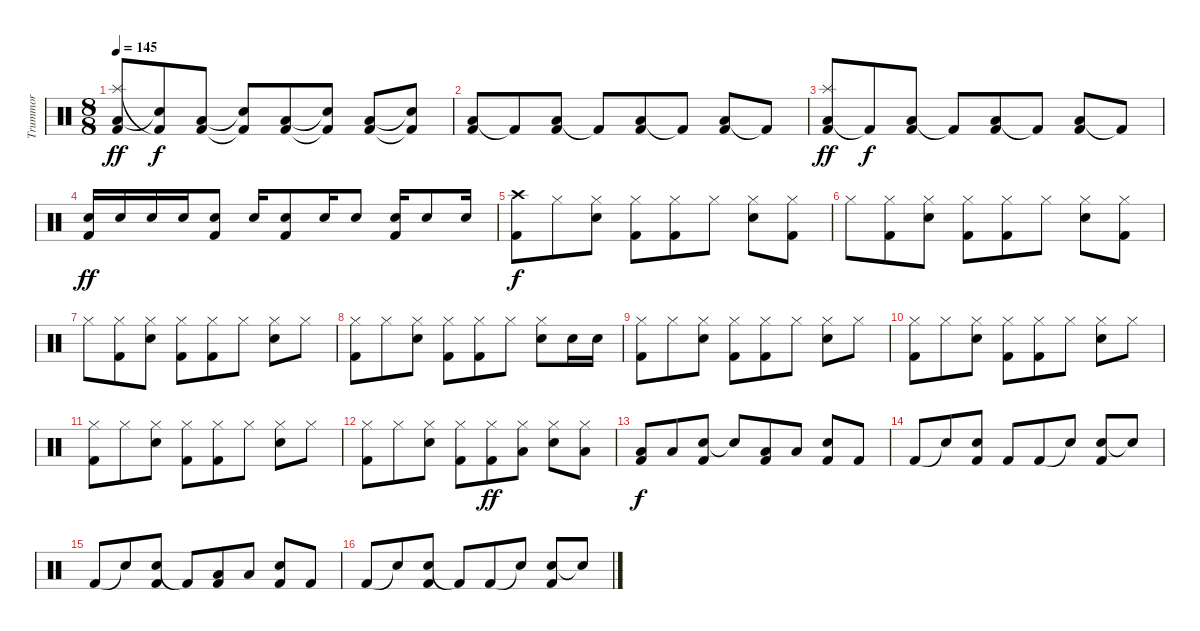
\track ("Trummor" "Trummor") {instrument percussion}
\staff {score}
\articulation defaults
\ts (8 8)
\tempo 145
\clef neutral
\ks c
("Low Floor Tom (hit)" "Splash (hit)" "Kick (hit) 2").8{dy ff} ("Snare (hit)"{t} "Kick (hit) 2"{t}).8{dy f} ("Low Floor Tom (hit)" "Kick (hit) 2").8 ("Snare (hit)"{t} "Kick (hit) 2"{t}).8 ("Low Floor Tom (hit)" "Kick (hit) 2").8 ("Snare (hit)"{t} "Kick (hit) 2"{t}).8 ("Low Floor Tom (hit)" "Kick (hit) 2").8 ("Snare (hit)"{t} "Kick (hit) 2"{t}).8 |
("Low Floor Tom (hit)" "Kick (hit) 2").8 "Kick (hit) 2"{t}.8 ("Low Floor Tom (hit)" "Kick (hit) 2").8 "Kick (hit) 2"{t}.8 ("Low Floor Tom (hit)" "Kick (hit) 2").8 "Kick (hit) 2"{t}.8 ("Low Floor Tom (hit)" "Kick (hit) 2").8 "Kick (hit) 2"{t}.8 |
("Low Floor Tom (hit)" "Splash (hit)" "Kick (hit) 2").8{dy ff} "Kick (hit) 2"{t}.8{dy f} ("Low Floor Tom (hit)" "Kick (hit) 2").8 "Kick (hit) 2"{t}.8 ("Low Floor Tom (hit)" "Kick (hit) 2").8 "Kick (hit) 2"{t}.8 ("Low Floor Tom (hit)" "Kick (hit) 2").8 "Kick (hit) 2"{t}.8 |
("Snare (hit) 2" "Kick (hit) 2").16{dy ff} "Snare (hit) 2".16 "Snare (hit) 2".16 "Snare (hit) 2".16 ("Snare (hit) 2" "Kick (hit) 2").8 "Snare (hit) 2".16 ("Snare (hit) 2" "Kick (hit) 2").8 "Snare (hit) 2".16 "Snare (hit) 2".8 ("Snare (hit) 2" "Kick (hit) 2").16 "Snare (hit) 2".8 "Snare (hit) 2".16 |
("Kick (hit) 2" "Crash high (hit)").8{dy f} "Hi-Hat (closed)".8 ("Snare (hit) 2" "Hi-Hat (closed)").8 ("Kick (hit) 2" "Hi-Hat (closed)").8 ("Kick (hit) 2" "Hi-Hat (closed)").8 "Hi-Hat (closed)".8 ("Snare (hit) 2" "Hi-Hat (closed)").8 ("Kick (hit) 2" "Hi-Hat (closed)").8 |
"Hi-Hat (closed)".8 ("Kick (hit) 2" "Hi-Hat (closed)").8 ("Snare (hit) 2" "Hi-Hat (closed)").8 ("Kick (hit) 2" "Hi-Hat (closed)").8 ("Kick (hit) 2" "Hi-Hat (closed)").8 "Hi-Hat (closed)".8 ("Snare (hit) 2" "Hi-Hat (closed)").8 ("Kick (hit) 2" "Hi-Hat (closed)").8 |
"Hi-Hat (closed)".8 ("Kick (hit) 2" "Hi-Hat (closed)").8 ("Snare (hit) 2" "Hi-Hat (closed)").8 ("Kick (hit) 2" "Hi-Hat (closed)").8 ("Kick (hit) 2" "Hi-Hat (closed)").8 "Hi-Hat (closed)".8 ("Snare (hit) 2" "Hi-Hat (closed)").8 "Hi-Hat (closed)".8 |
("Kick (hit) 2" "Hi-Hat (closed)").8 "Hi-Hat (closed)".8 ("Snare (hit) 2" "Hi-Hat (closed)").8 ("Kick (hit) 2" "Hi-Hat (closed)").8 ("Kick (hit) 2" "Hi-Hat (closed)").8 "Hi-Hat (closed)".8 ("Snare (hit) 2" "Hi-Hat (closed)").8 "Snare (hit) 2".16 "Snare (hit) 2".16 |
("Kick (hit) 2" "Hi-Hat (closed)").8 "Hi-Hat (closed)".8 ("Snare (hit) 2" "Hi-Hat (closed)").8 ("Kick (hit) 2" "Hi-Hat (closed)").8 ("Kick (hit) 2" "Hi-Hat (closed)").8 "Hi-Hat (closed)".8 ("Snare (hit) 2" "Hi-Hat (closed)").8 "Hi-Hat (closed)".8 |
("Kick (hit) 2" "Hi-Hat (closed)").8 "Hi-Hat (closed)".8 ("Snare (hit) 2" "Hi-Hat (closed)").8 ("Kick (hit) 2" "Hi-Hat (closed)").8 ("Kick (hit) 2" "Hi-Hat (closed)").8 "Hi-Hat (closed)".8 ("Snare (hit) 2" "Hi-Hat (closed)").8 "Hi-Hat (closed)".8 |
("Kick (hit) 2" "Hi-Hat (closed)").8 "Hi-Hat (closed)".8 ("Snare (hit) 2" "Hi-Hat (closed)").8 ("Kick (hit) 2" "Hi-Hat (closed)").8 ("Kick (hit) 2" "Hi-Hat (closed)").8 "Hi-Hat (closed)".8 ("Snare (hit) 2" "Hi-Hat (closed)").8 "Hi-Hat (closed)".8 |
("Kick (hit) 2" "Hi-Hat (closed)").8 "Hi-Hat (closed)".8 ("Snare (hit) 2" "Hi-Hat (closed)").8 ("Kick (hit) 2" "Hi-Hat (closed)").8 ("Kick (hit) 2" "Hi-Hat (closed)").8{dy ff} ("Low Floor Tom (hit)" "Hi-Hat (closed)").8 ("Snare (hit) 2" "Hi-Hat (closed)").8 ("Low Floor Tom (hit)" "Hi-Hat (closed)").8 |
("Low Floor Tom (hit)" "Kick (hit) 2").8{dy f} "Low Floor Tom (hit)".8 ("Snare (hit) 2" "Kick (hit) 2").8 "Snare (hit)"{t}.8 ("Low Floor Tom (hit)" "Kick (hit) 2").8 "Low Floor Tom (hit)".8 ("Snare (hit) 2" "Kick (hit) 2").8 "Kick (hit) 2".8 |
"Kick (hit) 2".8 "Snare (hit)"{t}.8 ("Snare (hit) 2" "Kick (hit) 2").8 "Kick (hit) 2".8 "Kick (hit) 2".8 "Snare (hit)"{t}.8 ("Snare (hit) 2" "Kick (hit) 2").8 "Snare (hit)"{t}.8 |
"Kick (hit) 2".8 "Snare (hit)"{t}.8 ("Snare (hit) 2" "Kick (hit) 2").8 "Kick (hit) 2"{t}.8 ("Low Floor Tom (hit)" "Kick (hit) 2").8 "Low Floor Tom (hit)".8 ("Snare (hit) 2" "Kick (hit) 2").8 "Kick (hit) 2".8 |
"Kick (hit) 2".8 "Snare (hit)"{t}.8 ("Snare (hit) 2" "Kick (hit) 2").8 "Kick (hit) 2"{t}.8 "Kick (hit) 2".8 "Snare (hit)"{t}.8 ("Snare (hit) 2" "Kick (hit) 2").8 "Snare (hit)"{t}.8
